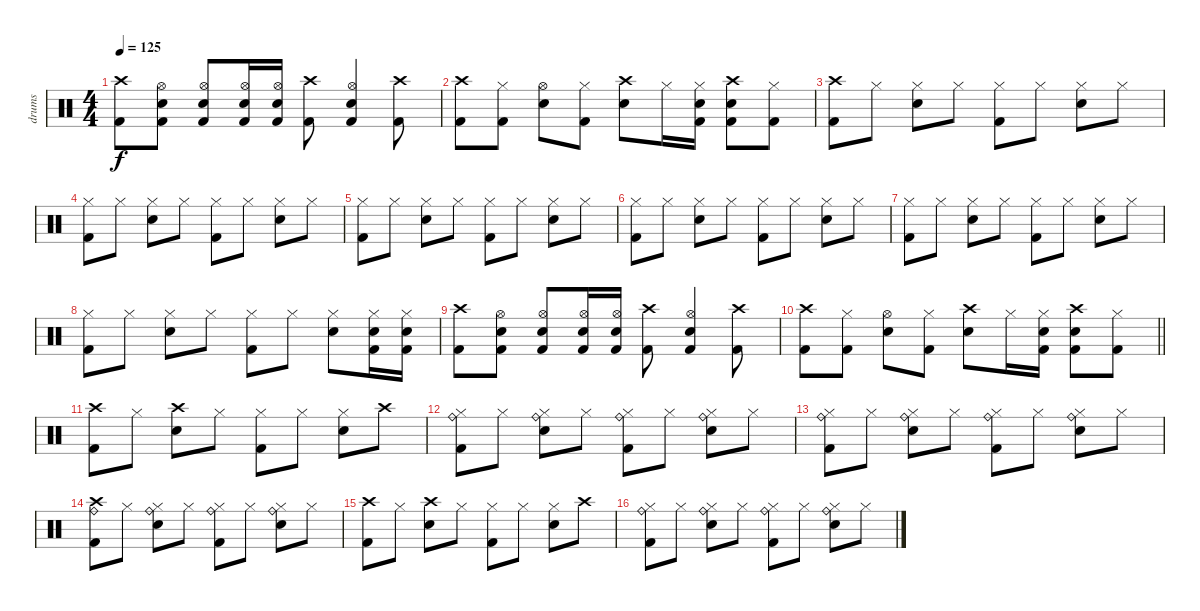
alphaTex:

\track ("drums" "drums") {instrument percussion}
\staff {score}
\articulation defaults
\ts (4 4)
\tempo 125
\clef neutral
\ks c
("Crash high (hit)" "Kick (hit) 2").8{dy f} ("Hi-Hat (open)" "Snare (hit) 2" "Kick (hit) 2").8 ("Hi-Hat (open)" "Snare (hit) 2" "Kick (hit) 2").8 ("Hi-Hat (open)" "Snare (hit) 2" "Kick (hit) 2").16 ("Hi-Hat (open)" "Snare (hit) 2" "Kick (hit) 2").16 ("Crash high (hit)" "Kick (hit) 2").8 ("Hi-Hat (open)" "Snare (hit) 2" "Kick (hit) 2").4 ("Crash high (hit)" "Kick (hit) 2").8 |
("Crash high (hit)" "Kick (hit) 2").8 ("Hi-Hat (closed)" "Kick (hit) 2").8 ("Hi-Hat (open)" "Snare (hit) 2").8 ("Hi-Hat (closed)" "Kick (hit) 2").8 ("Crash high (hit)" "Snare (hit) 2").8 "Hi-Hat (closed)".16 ("Hi-Hat (closed)" "Snare (hit) 2" "Kick (hit) 2").16 ("Crash high (hit)" "Snare (hit) 2" "Kick (hit) 2").8 ("Hi-Hat (closed)" "Kick (hit) 2").8 |
("Crash high (hit)" "Kick (hit) 2").8 "Hi-Hat (closed)".8 ("Hi-Hat (closed)" "Snare (hit) 2").8 "Hi-Hat (closed)".8 ("Hi-Hat (closed)" "Kick (hit) 2").8 "Hi-Hat (closed)".8 ("Hi-Hat (closed)" "Snare (hit) 2").8 "Hi-Hat (closed)".8 |
("Hi-Hat (closed)" "Kick (hit) 2").8 "Hi-Hat (closed)".8 ("Hi-Hat (closed)" "Snare (hit) 2").8 "Hi-Hat (closed)".8 ("Hi-Hat (closed)" "Kick (hit) 2").8 "Hi-Hat (closed)".8 ("Hi-Hat (closed)" "Snare (hit) 2").8 "Hi-Hat (closed)".8 |
("Hi-Hat (closed)" "Kick (hit) 2").8 "Hi-Hat (closed)".8 ("Hi-Hat (closed)" "Snare (hit) 2").8 "Hi-Hat (closed)".8 ("Hi-Hat (closed)" "Kick (hit) 2").8 "Hi-Hat (closed)".8 ("Hi-Hat (closed)" "Snare (hit) 2").8 "Hi-Hat (closed)".8 |
("Hi-Hat (closed)" "Kick (hit) 2").8 "Hi-Hat (closed)".8 ("Hi-Hat (closed)" "Snare (hit) 2").8 "Hi-Hat (closed)".8 ("Hi-Hat (closed)" "Kick (hit) 2").8 "Hi-Hat (closed)".8 ("Hi-Hat (closed)" "Snare (hit) 2").8 "Hi-Hat (closed)".8 |
("Hi-Hat (closed)" "Kick (hit) 2").8 "Hi-Hat (closed)".8 ("Hi-Hat (closed)" "Snare (hit) 2").8 "Hi-Hat (closed)".8 ("Hi-Hat (closed)" "Kick (hit) 2").8 "Hi-Hat (closed)".8 ("Hi-Hat (closed)" "Snare (hit) 2").8 "Hi-Hat (closed)".8 |
("Hi-Hat (closed)" "Kick (hit) 2").8 "Hi-Hat (closed)".8 ("Hi-Hat (closed)" "Snare (hit) 2").8 "Hi-Hat (closed)".8 ("Hi-Hat (closed)" "Kick (hit) 2").8 "Hi-Hat (closed)".8 ("Hi-Hat (closed)" "Snare (hit) 2").8 ("Hi-Hat (closed)" "Snare (hit) 2" "Kick (hit) 2").16 ("Hi-Hat (closed)" "Snare (hit) 2" "Kick (hit) 2").16 |
("Crash high (hit)" "Kick (hit) 2").8 ("Hi-Hat (open)" "Snare (hit) 2" "Kick (hit) 2").8 ("Hi-Hat (open)" "Snare (hit) 2" "Kick (hit) 2").8 ("Hi-Hat (open)" "Snare (hit) 2" "Kick (hit) 2").16 ("Hi-Hat (open)" "Snare (hit) 2" "Kick (hit) 2").16 ("Crash high (hit)" "Kick (hit) 2").8 ("Hi-Hat (open)" "Snare (hit) 2" "Kick (hit) 2").4 ("Crash high (hit)" "Kick (hit) 2").8 |
\barLineRight lightlight
("Crash high (hit)" "Kick (hit) 2").8 ("Hi-Hat (closed)" "Kick (hit) 2").8 ("Hi-Hat (open)" "Snare (hit) 2").8 ("Hi-Hat (closed)" "Kick (hit) 2").8 ("Crash high (hit)" "Snare (hit) 2").8 "Hi-Hat (closed)".16 ("Hi-Hat (closed)" "Snare (hit) 2" "Kick (hit) 2").16 ("Crash high (hit)" "Snare (hit) 2" "Kick (hit) 2").8 ("Hi-Hat (closed)" "Kick (hit) 2").8 |
("Crash high (hit)" "Kick (hit) 2").8 "Hi-Hat (closed)".8 ("Crash high (hit)" "Snare (hit) 2").8 "Hi-Hat (closed)".8 ("Hi-Hat (closed)" "Kick (hit) 2").8 "Hi-Hat (closed)".8 ("Hi-Hat (closed)" "Snare (hit) 2").8 "Crash high (hit)".8 |
("Hi-Hat (closed)" "Ride (bell)" "Kick (hit) 2").8 "Hi-Hat (closed)".8 ("Hi-Hat (closed)" "Snare (hit) 2" "Ride (bell)").8 "Hi-Hat (closed)".8 ("Hi-Hat (closed)" "Ride (bell)" "Kick (hit) 2").8 "Hi-Hat (closed)".8 ("Hi-Hat (closed)" "Snare (hit) 2" "Ride (bell)").8 "Hi-Hat (closed)".8 |
("Hi-Hat (closed)" "Ride (bell)" "Kick (hit) 2").8 "Hi-Hat (closed)".8 ("Hi-Hat (closed)" "Snare (hit) 2" "Ride (bell)").8 "Hi-Hat (closed)".8 ("Hi-Hat (closed)" "Ride (bell)" "Kick (hit) 2").8 "Hi-Hat (closed)".8 ("Hi-Hat (closed)" "Snare (hit) 2" "Ride (bell)").8 "Hi-Hat (closed)".8 |
("Crash high (hit)" "Ride (bell)" "Kick (hit) 2").8 "Hi-Hat (closed)".8 ("Hi-Hat (closed)" "Snare (hit) 2" "Ride (bell)").8 "Hi-Hat (closed)".8 ("Hi-Hat (closed)" "Ride (bell)" "Kick (hit) 2").8 "Hi-Hat (closed)".8 ("Hi-Hat (closed)" "Snare (hit) 2" "Ride (bell)").8 "Hi-Hat (closed)".8 |
("Crash high (hit)" "Kick (hit) 2").8 "Hi-Hat (closed)".8 ("Crash high (hit)" "Snare (hit) 2").8 "Hi-Hat (closed)".8 ("Hi-Hat (closed)" "Kick (hit) 2").8 "Hi-Hat (closed)".8 ("Hi-Hat (closed)" "Snare (hit) 2").8 "Crash high (hit)".8 |
("Hi-Hat (closed)" "Ride (bell)" "Kick (hit) 2").8 "Hi-Hat (closed)".8 ("Hi-Hat (closed)" "Snare (hit) 2" "Ride (bell)").8 "Hi-Hat (closed)".8 ("Hi-Hat (closed)" "Ride (bell)" "Kick (hit) 2").8 "Hi-Hat (closed)".8 ("Hi-Hat (closed)" "Snare (hit) 2" "Ride (bell)").8 "Hi-Hat (closed)".8
